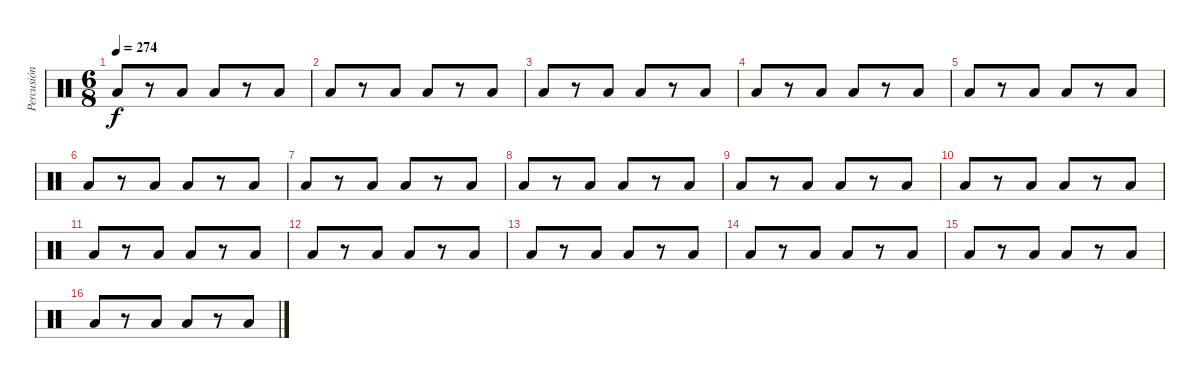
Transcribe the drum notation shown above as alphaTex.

\track ("Percusión Bastarda" "Percusión ") {instrument percussion}
\staff {score}
\articulation defaults
\ts (6 8)
\tempo 274
\clef neutral
\ks c "Low Floor Tom (hit)".8{dy f}
r.8 "Low Floor Tom (hit)".8 "Low Tom (hit)".8 r.8 "Low Tom (hit)".8 |
"Low Floor Tom (hit)".8 r.8 "Low Floor Tom (hit)".8 "Low Tom (hit)".8 r.8 "Low Tom (hit)".8 |
"Low Floor Tom (hit)".8 r.8 "Low Floor Tom (hit)".8 "Low Tom (hit)".8 r.8 "Low Tom (hit)".8 |
"Low Floor Tom (hit)".8 r.8 "Low Floor Tom (hit)".8 "Low Tom (hit)".8 r.8 "Low Tom (hit)".8 |
"Low Floor Tom (hit)".8 r.8 "Low Floor Tom (hit)".8 "Low Tom (hit)".8 r.8 "Low Tom (hit)".8 |
"Low Floor Tom (hit)".8 r.8 "Low Floor Tom (hit)".8 "Low Tom (hit)".8 r.8 "Low Tom (hit)".8 |
"Low Floor Tom (hit)".8 r.8 "Low Floor Tom (hit)".8 "Low Tom (hit)".8 r.8 "Low Tom (hit)".8 |
"Low Floor Tom (hit)".8 r.8 "Low Floor Tom (hit)".8 "Low Tom (hit)".8 r.8 "Low Tom (hit)".8 |
"Low Floor Tom (hit)".8 r.8 "Low Floor Tom (hit)".8 "Low Tom (hit)".8 r.8 "Low Tom (hit)".8 |
"Low Floor Tom (hit)".8 r.8 "Low Floor Tom (hit)".8 "Low Tom (hit)".8 r.8 "Low Tom (hit)".8 |
"Low Floor Tom (hit)".8 r.8 "Low Floor Tom (hit)".8 "Low Tom (hit)".8 r.8 "Low Tom (hit)".8 |
"Low Floor Tom (hit)".8 r.8 "Low Floor Tom (hit)".8 "Low Tom (hit)".8 r.8 "Low Tom (hit)".8 |
"Low Floor Tom (hit)".8 r.8 "Low Floor Tom (hit)".8 "Low Tom (hit)".8 r.8 "Low Tom (hit)".8 |
"Low Floor Tom (hit)".8 r.8 "Low Floor Tom (hit)".8 "Low Tom (hit)".8 r.8 "Low Tom (hit)".8 |
"Low Floor Tom (hit)".8 r.8 "Low Floor Tom (hit)".8 "Low Tom (hit)".8 r.8 "Low Tom (hit)".8 |
"Low Floor Tom (hit)".8 r.8 "Low Floor Tom (hit)".8 "Low Tom (hit)".8 r.8 "Low Tom (hit)".8
